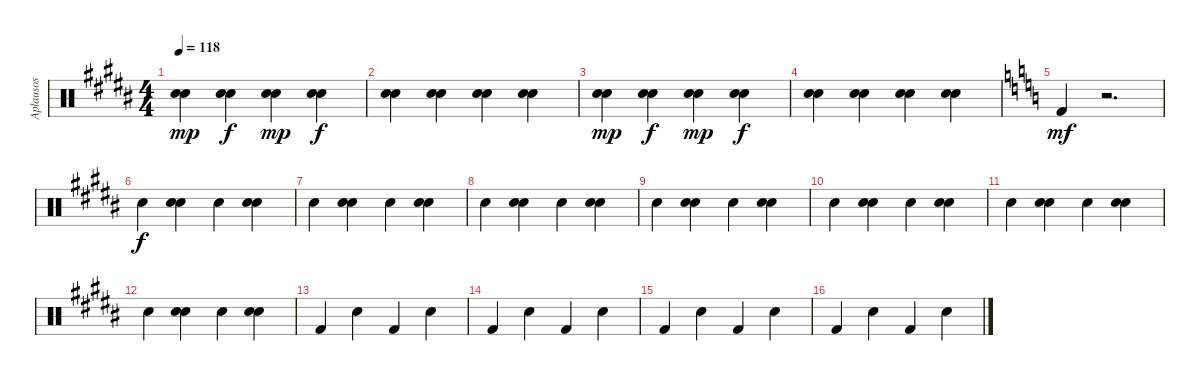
\track ("Aplausos" "Aplausos") {instrument percussion}
\staff {score}
\articulation defaults
\ts (4 4)
\tempo 118
\clef neutral
\ks b
("Hand Clap (hit)" "Hand Clap (hit)").4{dy mp} ("Hand Clap (hit)" "Hand Clap (hit)").4{dy f} ("Hand Clap (hit)" "Hand Clap (hit)").4{dy mp} ("Hand Clap (hit)" "Hand Clap (hit)").4{dy f} |
("Hand Clap (hit)" "Hand Clap (hit)").4 ("Hand Clap (hit)" "Hand Clap (hit)").4 ("Hand Clap (hit)" "Hand Clap (hit)").4 ("Hand Clap (hit)" "Hand Clap (hit)").4 |
("Hand Clap (hit)" "Hand Clap (hit)").4{dy mp} ("Hand Clap (hit)" "Hand Clap (hit)").4{dy f} ("Hand Clap (hit)" "Hand Clap (hit)").4{dy mp} ("Hand Clap (hit)" "Hand Clap (hit)").4{dy f} |
("Hand Clap (hit)" "Hand Clap (hit)").4 ("Hand Clap (hit)" "Hand Clap (hit)").4 ("Hand Clap (hit)" "Hand Clap (hit)").4 ("Hand Clap (hit)" "Hand Clap (hit)").4 |
\ks c "Kick (hit) 2".4{dy mf}
r.2{d} |
\ks b "Hand Clap (hit)".4{dy f}
("Hand Clap (hit)" "Hand Clap (hit)").4 "Hand Clap (hit)".4 ("Hand Clap (hit)" "Hand Clap (hit)").4 |
"Hand Clap (hit)".4 ("Hand Clap (hit)" "Hand Clap (hit)").4 "Hand Clap (hit)".4 ("Hand Clap (hit)" "Hand Clap (hit)").4 |
"Hand Clap (hit)".4 ("Hand Clap (hit)" "Hand Clap (hit)").4 "Hand Clap (hit)".4 ("Hand Clap (hit)" "Hand Clap (hit)").4 |
"Hand Clap (hit)".4 ("Hand Clap (hit)" "Hand Clap (hit)").4 "Hand Clap (hit)".4 ("Hand Clap (hit)" "Hand Clap (hit)").4 |
"Hand Clap (hit)".4 ("Hand Clap (hit)" "Hand Clap (hit)").4 "Hand Clap (hit)".4 ("Hand Clap (hit)" "Hand Clap (hit)").4 |
"Hand Clap (hit)".4 ("Hand Clap (hit)" "Hand Clap (hit)").4 "Hand Clap (hit)".4 ("Hand Clap (hit)" "Hand Clap (hit)").4 |
"Hand Clap (hit)".4 ("Hand Clap (hit)" "Hand Clap (hit)").4 "Hand Clap (hit)".4 ("Hand Clap (hit)" "Hand Clap (hit)").4 |
"Kick (hit) 2".4 "Hand Clap (hit)".4 "Kick (hit) 2".4 "Hand Clap (hit)".4 |
"Kick (hit) 2".4 "Hand Clap (hit)".4 "Kick (hit) 2".4 "Hand Clap (hit)".4 |
"Kick (hit) 2".4 "Hand Clap (hit)".4 "Kick (hit) 2".4 "Hand Clap (hit)".4 |
"Kick (hit) 2".4 "Hand Clap (hit)".4 "Kick (hit) 2".4 "Hand Clap (hit)".4
